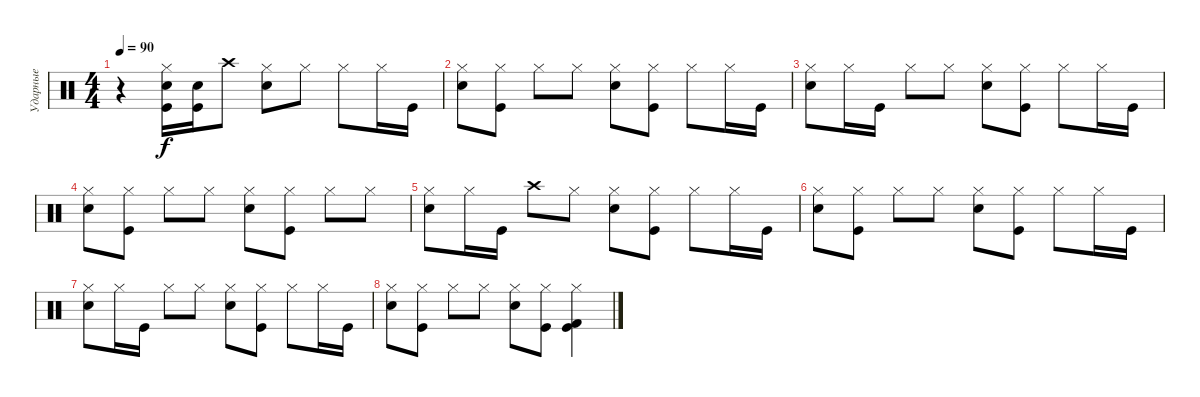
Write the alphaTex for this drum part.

\track ("Ударные" "Ударные") {instrument percussion}
\staff {score}
\articulation defaults
\ts (4 4)
\tempo 90
\clef neutral
\ks c
r.4{dy f} ("Hi-Hat (closed)" "Snare (hit) 2" "Kick (hit)").16 ("Snare (hit) 2" "Kick (hit)").16 "Crash high (hit)".8 ("Hi-Hat (closed)" "Snare (hit) 2").8 "Hi-Hat (closed)".8 "Hi-Hat (closed)".8 "Hi-Hat (closed)".16 "Kick (hit)".16 |
("Hi-Hat (closed)" "Snare (hit) 2").8 ("Hi-Hat (closed)" "Kick (hit)").8 "Hi-Hat (closed)".8 "Hi-Hat (closed)".8 ("Hi-Hat (closed)" "Snare (hit) 2").8 ("Hi-Hat (closed)" "Kick (hit)").8 "Hi-Hat (closed)".8 "Hi-Hat (closed)".16 "Kick (hit)".16 |
("Hi-Hat (closed)" "Snare (hit) 2").8 "Hi-Hat (closed)".16 "Kick (hit)".16 "Hi-Hat (closed)".8 "Hi-Hat (closed)".8 ("Hi-Hat (closed)" "Snare (hit) 2").8 ("Hi-Hat (closed)" "Kick (hit)").8 "Hi-Hat (closed)".8 "Hi-Hat (closed)".16 "Kick (hit)".16 |
("Hi-Hat (closed)" "Snare (hit) 2").8 ("Hi-Hat (closed)" "Kick (hit)").8 "Hi-Hat (closed)".8 "Hi-Hat (closed)".8 ("Hi-Hat (closed)" "Snare (hit) 2").8 ("Hi-Hat (closed)" "Kick (hit)").8 "Hi-Hat (closed)".8 "Hi-Hat (closed)".8 |
("Hi-Hat (closed)" "Snare (hit) 2").8 "Hi-Hat (closed)".16 "Kick (hit)".16 "Crash high (hit)".8 "Hi-Hat (closed)".8 ("Hi-Hat (closed)" "Snare (hit) 2").8 ("Hi-Hat (closed)" "Kick (hit)").8 "Hi-Hat (closed)".8 "Hi-Hat (closed)".16 "Kick (hit)".16 |
("Hi-Hat (closed)" "Snare (hit) 2").8 ("Hi-Hat (closed)" "Kick (hit)").8 "Hi-Hat (closed)".8 "Hi-Hat (closed)".8 ("Hi-Hat (closed)" "Snare (hit) 2").8 ("Hi-Hat (closed)" "Kick (hit)").8 "Hi-Hat (closed)".8 "Hi-Hat (closed)".16 "Kick (hit)".16 |
("Hi-Hat (closed)" "Snare (hit) 2").8 "Hi-Hat (closed)".16 "Kick (hit)".16 "Hi-Hat (closed)".8 "Hi-Hat (closed)".8 ("Hi-Hat (closed)" "Snare (hit) 2").8 ("Hi-Hat (closed)" "Kick (hit)").8 "Hi-Hat (closed)".8 "Hi-Hat (closed)".16 "Kick (hit)".16 |
("Hi-Hat (closed)" "Snare (hit) 2").8 ("Hi-Hat (closed)" "Kick (hit)").8 "Hi-Hat (closed)".8 "Hi-Hat (closed)".8 ("Hi-Hat (closed)" "Snare (hit) 2").8 ("Hi-Hat (closed)" "Kick (hit)").8 ("Hi-Hat (closed)" "Kick (hit) 2" "Kick (hit)").4
